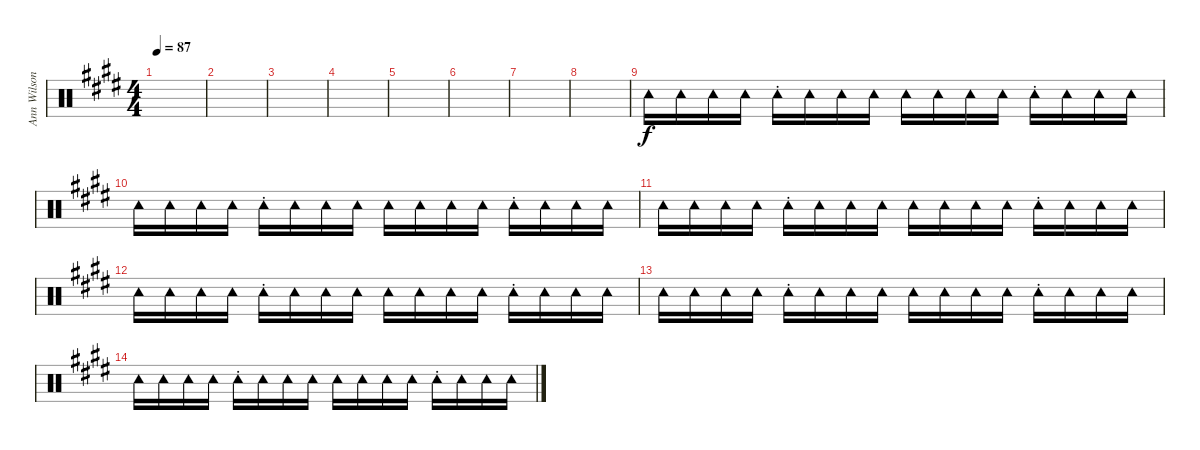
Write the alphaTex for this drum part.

\track ("Ann Wilson Tambrine" "Ann Wilson") {instrument percussion}
\staff {score}
\articulation defaults
\ts (4 4)
\tempo 87
\clef neutral
\ks e
|
|
|
|
|
|
|
|
"Tambourine (hit)".16 "Tambourine (hit)".16 "Tambourine (hit)".16 "Tambourine (hit)".16 "Tambourine (hit)"{st}.16 "Tambourine (hit)".16 "Tambourine (hit)".16 "Tambourine (hit)".16 "Tambourine (hit)".16 "Tambourine (hit)".16 "Tambourine (hit)".16 "Tambourine (hit)".16 "Tambourine (hit)"{st}.16 "Tambourine (hit)".16 "Tambourine (hit)".16 "Tambourine (hit)".16 |
"Tambourine (hit)".16 "Tambourine (hit)".16 "Tambourine (hit)".16 "Tambourine (hit)".16 "Tambourine (hit)"{st}.16 "Tambourine (hit)".16 "Tambourine (hit)".16 "Tambourine (hit)".16 "Tambourine (hit)".16 "Tambourine (hit)".16 "Tambourine (hit)".16 "Tambourine (hit)".16 "Tambourine (hit)"{st}.16 "Tambourine (hit)".16 "Tambourine (hit)".16 "Tambourine (hit)".16 |
"Tambourine (hit)".16 "Tambourine (hit)".16 "Tambourine (hit)".16 "Tambourine (hit)".16 "Tambourine (hit)"{st}.16 "Tambourine (hit)".16 "Tambourine (hit)".16 "Tambourine (hit)".16 "Tambourine (hit)".16 "Tambourine (hit)".16 "Tambourine (hit)".16 "Tambourine (hit)".16 "Tambourine (hit)"{st}.16 "Tambourine (hit)".16 "Tambourine (hit)".16 "Tambourine (hit)".16 |
"Tambourine (hit)".16 "Tambourine (hit)".16 "Tambourine (hit)".16 "Tambourine (hit)".16 "Tambourine (hit)"{st}.16 "Tambourine (hit)".16 "Tambourine (hit)".16 "Tambourine (hit)".16 "Tambourine (hit)".16 "Tambourine (hit)".16 "Tambourine (hit)".16 "Tambourine (hit)".16 "Tambourine (hit)"{st}.16 "Tambourine (hit)".16 "Tambourine (hit)".16 "Tambourine (hit)".16 |
"Tambourine (hit)".16 "Tambourine (hit)".16 "Tambourine (hit)".16 "Tambourine (hit)".16 "Tambourine (hit)"{st}.16 "Tambourine (hit)".16 "Tambourine (hit)".16 "Tambourine (hit)".16 "Tambourine (hit)".16 "Tambourine (hit)".16 "Tambourine (hit)".16 "Tambourine (hit)".16 "Tambourine (hit)"{st}.16 "Tambourine (hit)".16 "Tambourine (hit)".16 "Tambourine (hit)".16 |
"Tambourine (hit)".16 "Tambourine (hit)".16 "Tambourine (hit)".16 "Tambourine (hit)".16 "Tambourine (hit)"{st}.16 "Tambourine (hit)".16 "Tambourine (hit)".16 "Tambourine (hit)".16 "Tambourine (hit)".16 "Tambourine (hit)".16 "Tambourine (hit)".16 "Tambourine (hit)".16 "Tambourine (hit)"{st}.16 "Tambourine (hit)".16 "Tambourine (hit)".16 "Tambourine (hit)".16
